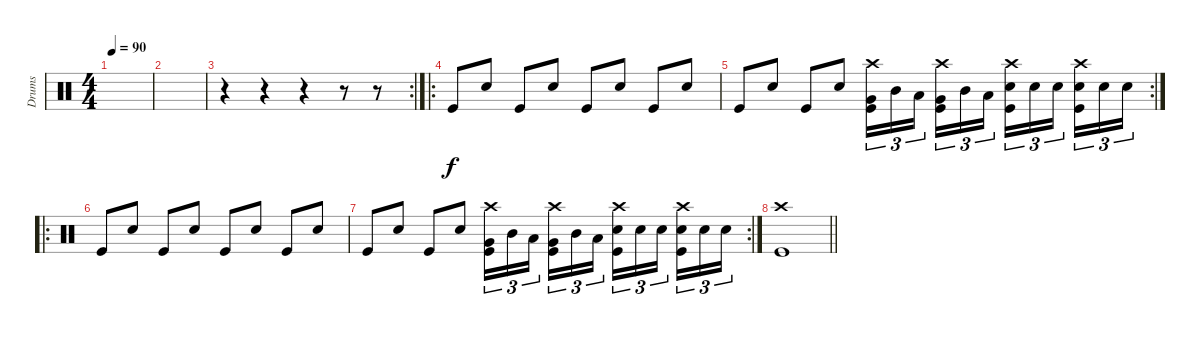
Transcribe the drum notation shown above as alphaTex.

\track ("Drums" "Drums") {instrument percussion}
\staff {score}
\articulation defaults
\ts (4 4)
\tempo 90
\clef neutral
\ks c
|
|
\rc 2
r.4 r.4 r.4 r.8 r.8 |
\ro "Kick (hit)".8 "Snare (hit) 2".8 "Kick (hit)".8 "Snare (hit) 2".8 "Kick (hit)".8 "Snare (hit) 2".8 "Kick (hit)".8 "Snare (hit) 2".8
|
\rc 2 "Kick (hit)".8 "Snare (hit) 2".8 "Kick (hit)".8 "Snare (hit) 2".8
("Very Low Tom (hit)" "Crash high (hit)" "Kick (hit)").16{tu (3 2)} "Mid Tom (hit)".16{tu (3 2)} "Low Floor Tom (hit)".16{tu (3 2)} ("Very Low Tom (hit)" "Crash high (hit)" "Kick (hit)").16{tu (3 2)} "Mid Tom (hit)".16{tu (3 2)} "Low Floor Tom (hit)".16{tu (3 2)} ("Snare (hit) 2" "Crash high (hit)" "Kick (hit)").16{tu (3 2)} "Snare (hit) 2".16{tu (3 2)} "Snare (hit) 2".16{tu (3 2)} ("Snare (hit) 2" "Crash high (hit)" "Kick (hit)").16{tu (3 2)} "Snare (hit) 2".16{tu (3 2)} "Snare (hit) 2".16{tu (3 2)} |
\ro "Kick (hit)".8 "Snare (hit) 2".8 "Kick (hit)".8 "Snare (hit) 2".8 "Kick (hit)".8 "Snare (hit) 2".8 "Kick (hit)".8 "Snare (hit) 2".8
|
\rc 2 "Kick (hit)".8 "Snare (hit) 2".8 "Kick (hit)".8 "Snare (hit) 2".8
("Very Low Tom (hit)" "Crash high (hit)" "Kick (hit)").16{tu (3 2)} "Mid Tom (hit)".16{tu (3 2)} "Low Floor Tom (hit)".16{tu (3 2)} ("Very Low Tom (hit)" "Crash high (hit)" "Kick (hit)").16{tu (3 2)} "Mid Tom (hit)".16{tu (3 2)} "Low Floor Tom (hit)".16{tu (3 2)} ("Snare (hit) 2" "Crash high (hit)" "Kick (hit)").16{tu (3 2)} "Snare (hit) 2".16{tu (3 2)} "Snare (hit) 2".16{tu (3 2)} ("Snare (hit) 2" "Crash high (hit)" "Kick (hit)").16{tu (3 2)} "Snare (hit) 2".16{tu (3 2)} "Snare (hit) 2".16{tu (3 2)} |
\barLineRight lightlight
("Kick (hit)" "Crash high (hit)").1
